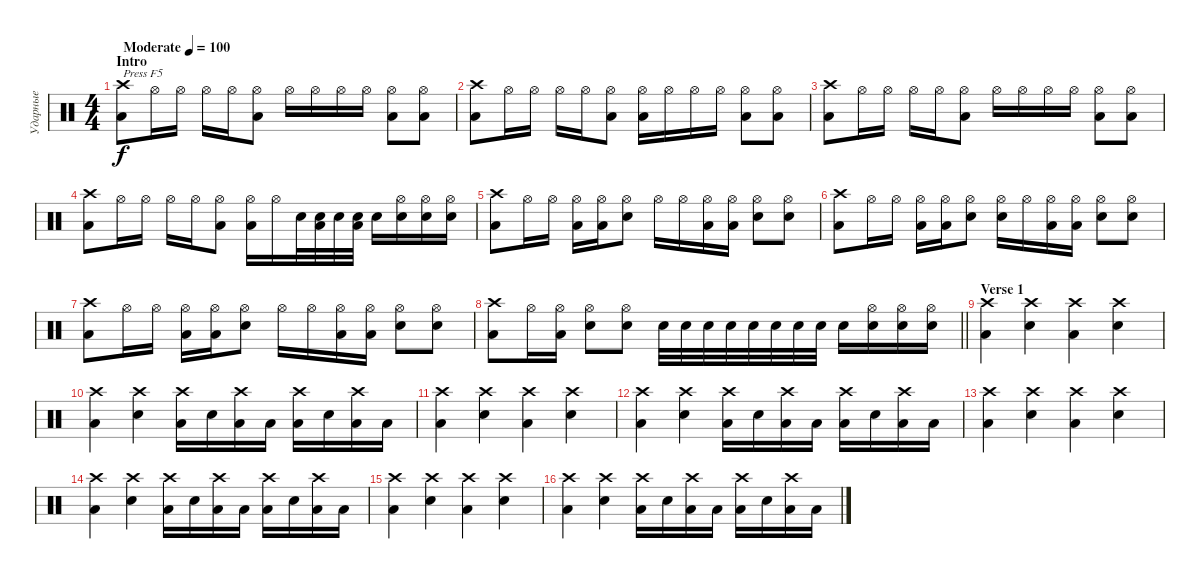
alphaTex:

\track ("Ударные" "Ударные") {instrument percussion}
\staff {score}
\articulation defaults
\ts (4 4)
\section ("" "Intro")
\tempo (100 "Moderate")
\clef neutral
\ks c
("Low Floor Tom (hit)" "Crash high (hit)").8{txt "Press F5" dy f} "Hi-Hat (open)".16 "Hi-Hat (open)".16 "Hi-Hat (open)".16 "Hi-Hat (open)".16 ("Low Floor Tom (hit)" "Hi-Hat (open)").8 "Hi-Hat (open)".16 "Hi-Hat (open)".16 "Hi-Hat (open)".16 "Hi-Hat (open)".16 ("Low Floor Tom (hit)" "Hi-Hat (open)").8 ("Low Floor Tom (hit)" "Hi-Hat (open)").8 |
("Low Floor Tom (hit)" "Crash high (hit)").8 "Hi-Hat (open)".16 "Hi-Hat (open)".16 "Hi-Hat (open)".16 "Hi-Hat (open)".16 ("Low Floor Tom (hit)" "Hi-Hat (open)").8 ("Low Floor Tom (hit)" "Hi-Hat (open)").16 "Hi-Hat (open)".16 "Hi-Hat (open)".16 "Hi-Hat (open)".16 ("Low Floor Tom (hit)" "Hi-Hat (open)").8 ("Low Floor Tom (hit)" "Hi-Hat (open)").8 |
("Low Floor Tom (hit)" "Crash high (hit)").8 "Hi-Hat (open)".16 "Hi-Hat (open)".16 "Hi-Hat (open)".16 "Hi-Hat (open)".16 ("Low Floor Tom (hit)" "Hi-Hat (open)").8 "Hi-Hat (open)".16 "Hi-Hat (open)".16 "Hi-Hat (open)".16 "Hi-Hat (open)".16 ("Low Floor Tom (hit)" "Hi-Hat (open)").8 ("Low Floor Tom (hit)" "Hi-Hat (open)").8 |
("Low Floor Tom (hit)" "Crash high (hit)").8 "Hi-Hat (open)".16 "Hi-Hat (open)".16 "Hi-Hat (open)".16 "Hi-Hat (open)".16 ("Low Floor Tom (hit)" "Hi-Hat (open)").8 ("Low Floor Tom (hit)" "Hi-Hat (open)").16 "Hi-Hat (open)".16 "Snare (hit) 2".32 ("Low Floor Tom (hit)" "Snare (hit) 2").32 "Snare (hit) 2".32 ("Low Floor Tom (hit)" "Snare (hit) 2").32 "Snare (hit) 2".16 ("Snare (hit) 2" "Hi-Hat (open)").16 ("Snare (hit) 2" "Hi-Hat (open)").16 ("Snare (hit) 2" "Hi-Hat (open)").16 |
("Low Floor Tom (hit)" "Crash high (hit)").8 "Hi-Hat (open)".16 "Hi-Hat (open)".16 ("Low Floor Tom (hit)" "Hi-Hat (open)").16 ("Low Floor Tom (hit)" "Hi-Hat (open)").16 ("Snare (hit) 2" "Hi-Hat (open)").8 "Hi-Hat (open)".16 "Hi-Hat (open)".16 ("Low Floor Tom (hit)" "Hi-Hat (open)").16 ("Low Floor Tom (hit)" "Hi-Hat (open)").16 ("Snare (hit) 2" "Hi-Hat (open)").8 ("Snare (hit) 2" "Hi-Hat (open)").8 |
("Low Floor Tom (hit)" "Crash high (hit)").8 "Hi-Hat (open)".16 "Hi-Hat (open)".16 ("Low Floor Tom (hit)" "Hi-Hat (open)").16 ("Low Floor Tom (hit)" "Hi-Hat (open)").16 ("Snare (hit) 2" "Hi-Hat (open)").8 ("Snare (hit) 2" "Hi-Hat (open)").16 "Hi-Hat (open)".16 ("Low Floor Tom (hit)" "Hi-Hat (open)").16 ("Low Floor Tom (hit)" "Hi-Hat (open)").16 ("Snare (hit) 2" "Hi-Hat (open)").8 ("Snare (hit) 2" "Hi-Hat (open)").8 |
("Low Floor Tom (hit)" "Crash high (hit)").8 "Hi-Hat (open)".16 "Hi-Hat (open)".16 ("Low Floor Tom (hit)" "Hi-Hat (open)").16 ("Low Floor Tom (hit)" "Hi-Hat (open)").16 ("Snare (hit) 2" "Hi-Hat (open)").8 "Hi-Hat (open)".16 "Hi-Hat (open)".16 ("Low Floor Tom (hit)" "Hi-Hat (open)").16 ("Low Floor Tom (hit)" "Hi-Hat (open)").16 ("Snare (hit) 2" "Hi-Hat (open)").8 ("Snare (hit) 2" "Hi-Hat (open)").8 |
\barLineRight lightlight
("Low Floor Tom (hit)" "Crash high (hit)").8 "Hi-Hat (open)".16 ("Low Floor Tom (hit)" "Hi-Hat (open)").16 ("Snare (hit) 2" "Hi-Hat (open)").8 ("Snare (hit) 2" "Hi-Hat (open)").8 "Snare (hit) 2".32 "Snare (hit) 2".32 "Snare (hit) 2".32 "Snare (hit) 2".32 "Snare (hit) 2".32 "Snare (hit) 2".32 "Snare (hit) 2".32 "Snare (hit) 2".32 "Snare (hit) 2".16 ("Snare (hit) 2" "Hi-Hat (open)").16 ("Snare (hit) 2" "Hi-Hat (open)").16 ("Snare (hit) 2" "Hi-Hat (open)").16 |
\section ("" "Verse 1")
("Low Floor Tom (hit)" "Crash high (hit)").4 ("Snare (hit) 2" "Crash high (hit)").4 ("Low Floor Tom (hit)" "Crash high (hit)").4 ("Snare (hit) 2" "Crash high (hit)").4 |
("Low Floor Tom (hit)" "Crash high (hit)").4 ("Snare (hit) 2" "Crash high (hit)").4 ("Low Floor Tom (hit)" "Crash high (hit)").16 "Snare (hit) 2".16 ("Low Floor Tom (hit)" "Crash high (hit)").16 "Low Floor Tom (hit)".16 ("Low Floor Tom (hit)" "Crash high (hit)").16 "Snare (hit) 2".16 ("Low Floor Tom (hit)" "Crash high (hit)").16 "Low Floor Tom (hit)".16 |
("Low Floor Tom (hit)" "Crash high (hit)").4 ("Snare (hit) 2" "Crash high (hit)").4 ("Low Floor Tom (hit)" "Crash high (hit)").4 ("Snare (hit) 2" "Crash high (hit)").4 |
("Low Floor Tom (hit)" "Crash high (hit)").4 ("Snare (hit) 2" "Crash high (hit)").4 ("Low Floor Tom (hit)" "Crash high (hit)").16 "Snare (hit) 2".16 ("Low Floor Tom (hit)" "Crash high (hit)").16 "Low Floor Tom (hit)".16 ("Low Floor Tom (hit)" "Crash high (hit)").16 "Snare (hit) 2".16 ("Low Floor Tom (hit)" "Crash high (hit)").16 "Low Floor Tom (hit)".16 |
("Low Floor Tom (hit)" "Crash high (hit)").4 ("Snare (hit) 2" "Crash high (hit)").4 ("Low Floor Tom (hit)" "Crash high (hit)").4 ("Snare (hit) 2" "Crash high (hit)").4 |
("Low Floor Tom (hit)" "Crash high (hit)").4 ("Snare (hit) 2" "Crash high (hit)").4 ("Low Floor Tom (hit)" "Crash high (hit)").16 "Snare (hit) 2".16 ("Low Floor Tom (hit)" "Crash high (hit)").16 "Low Floor Tom (hit)".16 ("Low Floor Tom (hit)" "Crash high (hit)").16 "Snare (hit) 2".16 ("Low Floor Tom (hit)" "Crash high (hit)").16 "Low Floor Tom (hit)".16 |
("Low Floor Tom (hit)" "Crash high (hit)").4 ("Snare (hit) 2" "Crash high (hit)").4 ("Low Floor Tom (hit)" "Crash high (hit)").4 ("Snare (hit) 2" "Crash high (hit)").4 |
("Low Floor Tom (hit)" "Crash high (hit)").4 ("Snare (hit) 2" "Crash high (hit)").4 ("Low Floor Tom (hit)" "Crash high (hit)").16 "Snare (hit) 2".16 ("Low Floor Tom (hit)" "Crash high (hit)").16 "Low Floor Tom (hit)".16 ("Low Floor Tom (hit)" "Crash high (hit)").16 "Snare (hit) 2".16 ("Low Floor Tom (hit)" "Crash high (hit)").16 "Low Floor Tom (hit)".16
